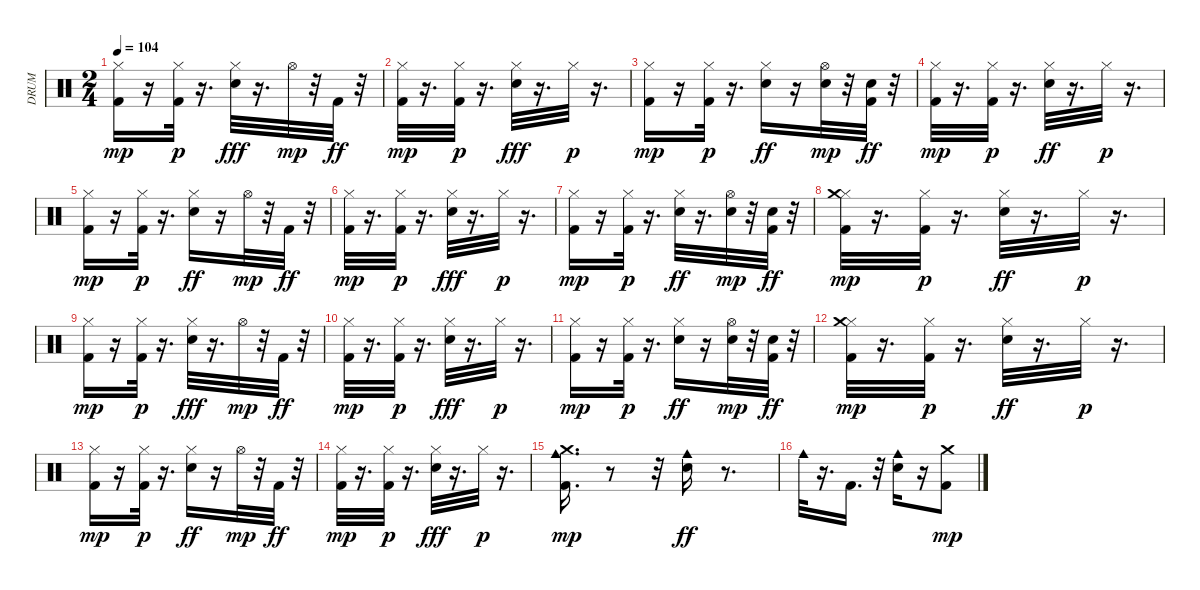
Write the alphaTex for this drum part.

\track ("DRUM    " "DRUM    ") {instrument percussion}
\staff {score}
\articulation defaults
\ts (2 4)
\tempo 104
\clef neutral
\ks c
("Kick (hit) 2" "Hi-Hat (closed)").16{dy mp} r.16 ("Kick (hit) 2" "Hi-Hat (closed)").32{dy p} r.16{d} ("Hi-Hat (closed)" "Snare (hit) 2").32{dy fff} r.16{d} "Hi-Hat (open)".32{dy mp} r.32 "Kick (hit) 2".32{dy ff} r.32 |
("Kick (hit) 2" "Hi-Hat (closed)").32{dy mp} r.16{d} ("Kick (hit) 2" "Hi-Hat (closed)").32{dy p} r.16{d} ("Hi-Hat (closed)" "Snare (hit) 2").32{dy fff} r.16{d} "Hi-Hat (closed)".32{dy p} r.16{d} |
("Kick (hit) 2" "Hi-Hat (closed)").16{dy mp} r.16 ("Kick (hit) 2" "Hi-Hat (closed)").32{dy p} r.16{d} ("Hi-Hat (closed)" "Snare (hit) 2").16{dy ff} r.16 ("Hi-Hat (open)" "Snare (hit) 2").32{dy mp} r.32 ("Kick (hit) 2" "Snare (hit) 2").32{dy ff} r.32 |
("Kick (hit) 2" "Hi-Hat (closed)").32{dy mp} r.16{d} ("Kick (hit) 2" "Hi-Hat (closed)").32{dy p} r.16{d} ("Hi-Hat (closed)" "Snare (hit) 2").32{dy ff} r.16{d} "Hi-Hat (closed)".32{dy p} r.16{d} |
("Kick (hit) 2" "Hi-Hat (closed)").16{dy mp} r.16 ("Kick (hit) 2" "Hi-Hat (closed)").32{dy p} r.16{d} ("Hi-Hat (closed)" "Snare (hit) 2").16{dy ff} r.16 "Hi-Hat (open)".32{dy mp} r.32 "Kick (hit) 2".32{dy ff} r.32 |
("Kick (hit) 2" "Hi-Hat (closed)").32{dy mp} r.16{d} ("Kick (hit) 2" "Hi-Hat (closed)").32{dy p} r.16{d} ("Hi-Hat (closed)" "Snare (hit) 2").32{dy fff} r.16{d} "Hi-Hat (closed)".32{dy p} r.16{d} |
("Kick (hit) 2" "Hi-Hat (closed)").16{dy mp} r.16 ("Kick (hit) 2" "Hi-Hat (closed)").32{dy p} r.16{d} ("Hi-Hat (closed)" "Snare (hit) 2").32{dy ff} r.16{d} ("Hi-Hat (open)" "Snare (hit) 2").32{dy mp} r.32 ("Kick (hit) 2" "Snare (hit) 2").32{dy ff} r.32 |
("Kick (hit) 2" "Hi-Hat (closed)" "Crash medium (hit)").32{dy mp} r.16{d} ("Kick (hit) 2" "Hi-Hat (closed)").32{dy p} r.16{d} ("Hi-Hat (closed)" "Snare (hit) 2").32{dy ff} r.16{d} "Hi-Hat (closed)".32{dy p} r.16{d} |
("Kick (hit) 2" "Hi-Hat (closed)").16{dy mp} r.16 ("Kick (hit) 2" "Hi-Hat (closed)").32{dy p} r.16{d} ("Hi-Hat (closed)" "Snare (hit) 2").32{dy fff} r.16{d} "Hi-Hat (open)".32{dy mp} r.32 "Kick (hit) 2".32{dy ff} r.32 |
("Kick (hit) 2" "Hi-Hat (closed)").32{dy mp} r.16{d} ("Kick (hit) 2" "Hi-Hat (closed)").32{dy p} r.16{d} ("Hi-Hat (closed)" "Snare (hit) 2").32{dy fff} r.16{d} "Hi-Hat (closed)".32{dy p} r.16{d} |
("Kick (hit) 2" "Hi-Hat (closed)").16{dy mp} r.16 ("Kick (hit) 2" "Hi-Hat (closed)").32{dy p} r.16{d} ("Hi-Hat (closed)" "Snare (hit) 2").16{dy ff} r.16 ("Hi-Hat (open)" "Snare (hit) 2").32{dy mp} r.32 ("Kick (hit) 2" "Snare (hit) 2").32{dy ff} r.32 |
("Kick (hit) 2" "Hi-Hat (closed)" "Crash medium (hit)").32{dy mp} r.16{d} ("Kick (hit) 2" "Hi-Hat (closed)").32{dy p} r.16{d} ("Hi-Hat (closed)" "Snare (hit) 2").32{dy ff} r.16{d} "Hi-Hat (closed)".32{dy p} r.16{d} |
("Kick (hit) 2" "Hi-Hat (closed)").16{dy mp} r.16 ("Kick (hit) 2" "Hi-Hat (closed)").32{dy p} r.16{d} ("Hi-Hat (closed)" "Snare (hit) 2").16{dy ff} r.16 "Hi-Hat (open)".32{dy mp} r.32 "Kick (hit) 2".32{dy ff} r.32 |
("Kick (hit) 2" "Hi-Hat (closed)").32{dy mp} r.16{d} ("Kick (hit) 2" "Hi-Hat (closed)").32{dy p} r.16{d} ("Hi-Hat (closed)" "Snare (hit) 2").32{dy fff} r.16{d} "Hi-Hat (closed)".32{dy p} r.16{d} |
("Cowbell medium (hit)" "Kick (hit) 2" "Crash medium (hit)").16{d dy mp} r.8 r.32 ("Cowbell medium (hit)" "Snare (hit) 2").16{dy ff} r.8{d} |
"Cowbell medium (hit)".32 r.16{d} "Kick (hit) 2".16{d} r.32 ("Cowbell medium (hit)" "Snare (hit) 2").16 r.16 ("Kick (hit) 2" "Crash medium (hit)").8{dy mp}
